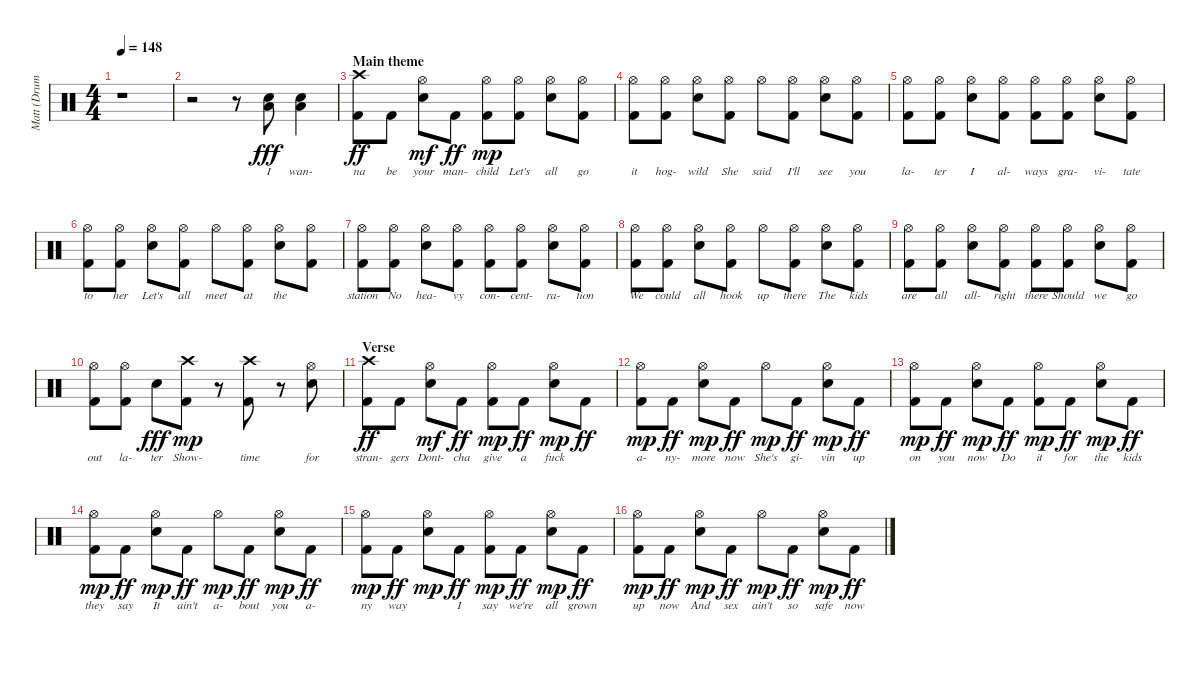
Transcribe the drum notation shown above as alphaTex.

\track ("Matt (Drums)" "Matt (Drum") {instrument percussion}
\staff {score}
\articulation defaults
\ts (4 4)
\tempo 148
\clef neutral
\ks c
r.1{dy fff} |
r.2 r.8 ("Snare (hit) 2" "Low Tom (hit)").8{lyrics (0 "I") lyrics (1 "") lyrics (2 "") lyrics (3 "") lyrics (4 "")} ("Snare (hit) 2" "Low Tom (hit)").4{lyrics (0 "wan-") lyrics (1 "") lyrics (2 "") lyrics (3 "") lyrics (4 "")} |
\section ("" "Main theme")
("Kick (hit) 2" "Crash high (hit)").8{lyrics (0 "na") lyrics (1 "") lyrics (2 "") lyrics (3 "") lyrics (4 "") dy ff} "Kick (hit) 2".8{lyrics (0 "be") lyrics (1 "") lyrics (2 "") lyrics (3 "") lyrics (4 "")} ("Electric Snare (hit)" "Hi-Hat (open)").8{lyrics (0 "your") lyrics (1 "") lyrics (2 "") lyrics (3 "") lyrics (4 "") dy mf} "Kick (hit) 2".8{lyrics (0 "man-") lyrics (1 "") lyrics (2 "") lyrics (3 "") lyrics (4 "") dy ff} ("Kick (hit) 2" "Hi-Hat (open)").8{lyrics (0 "child") lyrics (1 "") lyrics (2 "") lyrics (3 "") lyrics (4 "") dy mp} ("Kick (hit) 2" "Hi-Hat (open)").8{lyrics (0 "Let's") lyrics (1 "") lyrics (2 "") lyrics (3 "") lyrics (4 "")} ("Electric Snare (hit)" "Hi-Hat (open)").8{lyrics (0 "all") lyrics (1 "") lyrics (2 "") lyrics (3 "") lyrics (4 "")} ("Kick (hit) 2" "Hi-Hat (open)").8{lyrics (0 "go") lyrics (1 "") lyrics (2 "") lyrics (3 "") lyrics (4 "")} |
("Kick (hit) 2" "Hi-Hat (open)").8{lyrics (0 "it") lyrics (1 "") lyrics (2 "") lyrics (3 "") lyrics (4 "")} ("Kick (hit) 2" "Hi-Hat (open)").8{lyrics (0 "hog-") lyrics (1 "") lyrics (2 "") lyrics (3 "") lyrics (4 "")} ("Electric Snare (hit)" "Hi-Hat (open)").8{lyrics (0 "wild") lyrics (1 "") lyrics (2 "") lyrics (3 "") lyrics (4 "")} ("Kick (hit) 2" "Hi-Hat (open)").8{lyrics (0 "She") lyrics (1 "") lyrics (2 "") lyrics (3 "") lyrics (4 "")} "Hi-Hat (open)".8{lyrics (0 "said") lyrics (1 "") lyrics (2 "") lyrics (3 "") lyrics (4 "")} ("Kick (hit) 2" "Hi-Hat (open)").8{lyrics (0 "I'll") lyrics (1 "") lyrics (2 "") lyrics (3 "") lyrics (4 "")} ("Electric Snare (hit)" "Hi-Hat (open)").8{lyrics (0 "see") lyrics (1 "") lyrics (2 "") lyrics (3 "") lyrics (4 "")} ("Kick (hit) 2" "Hi-Hat (open)").8{lyrics (0 "you") lyrics (1 "") lyrics (2 "") lyrics (3 "") lyrics (4 "")} |
("Kick (hit) 2" "Hi-Hat (open)").8{lyrics (0 "la-") lyrics (1 "") lyrics (2 "") lyrics (3 "") lyrics (4 "")} ("Kick (hit) 2" "Hi-Hat (open)").8{lyrics (0 "ter") lyrics (1 "") lyrics (2 "") lyrics (3 "") lyrics (4 "")} ("Electric Snare (hit)" "Hi-Hat (open)").8{lyrics (0 "I") lyrics (1 "") lyrics (2 "") lyrics (3 "") lyrics (4 "")} ("Kick (hit) 2" "Hi-Hat (open)").8{lyrics (0 "al-") lyrics (1 "") lyrics (2 "") lyrics (3 "") lyrics (4 "")} ("Kick (hit) 2" "Hi-Hat (open)").8{lyrics (0 "ways") lyrics (1 "") lyrics (2 "") lyrics (3 "") lyrics (4 "")} ("Kick (hit) 2" "Hi-Hat (open)").8{lyrics (0 "gra-") lyrics (1 "") lyrics (2 "") lyrics (3 "") lyrics (4 "")} ("Electric Snare (hit)" "Hi-Hat (open)").8{lyrics (0 "vi-") lyrics (1 "") lyrics (2 "") lyrics (3 "") lyrics (4 "")} ("Kick (hit) 2" "Hi-Hat (open)").8{lyrics (0 "tate") lyrics (1 "") lyrics (2 "") lyrics (3 "") lyrics (4 "")} |
("Kick (hit) 2" "Hi-Hat (open)").8{lyrics (0 "to") lyrics (1 "") lyrics (2 "") lyrics (3 "") lyrics (4 "")} ("Kick (hit) 2" "Hi-Hat (open)").8{lyrics (0 "her") lyrics (1 "") lyrics (2 "") lyrics (3 "") lyrics (4 "")} ("Electric Snare (hit)" "Hi-Hat (open)").8{lyrics (0 "Let's") lyrics (1 "") lyrics (2 "") lyrics (3 "") lyrics (4 "")} ("Kick (hit) 2" "Hi-Hat (open)").8{lyrics (0 "all") lyrics (1 "") lyrics (2 "") lyrics (3 "") lyrics (4 "")} "Hi-Hat (open)".8{lyrics (0 "meet") lyrics (1 "") lyrics (2 "") lyrics (3 "") lyrics (4 "")} ("Kick (hit) 2" "Hi-Hat (open)").8{lyrics (0 "at") lyrics (1 "") lyrics (2 "") lyrics (3 "") lyrics (4 "")} ("Electric Snare (hit)" "Hi-Hat (open)").8{lyrics (0 "the") lyrics (1 "") lyrics (2 "") lyrics (3 "") lyrics (4 "")} ("Kick (hit) 2" "Hi-Hat (open)").8{lyrics (0 "") lyrics (1 "") lyrics (2 "") lyrics (3 "") lyrics (4 "")} |
("Kick (hit) 2" "Hi-Hat (open)").8{lyrics (0 "station") lyrics (1 "") lyrics (2 "") lyrics (3 "") lyrics (4 "")} ("Kick (hit) 2" "Hi-Hat (open)").8{lyrics (0 "No") lyrics (1 "") lyrics (2 "") lyrics (3 "") lyrics (4 "")} ("Electric Snare (hit)" "Hi-Hat (open)").8{lyrics (0 "hea-") lyrics (1 "") lyrics (2 "") lyrics (3 "") lyrics (4 "")} ("Kick (hit) 2" "Hi-Hat (open)").8{lyrics (0 "vy") lyrics (1 "") lyrics (2 "") lyrics (3 "") lyrics (4 "")} ("Kick (hit) 2" "Hi-Hat (open)").8{lyrics (0 "con-") lyrics (1 "") lyrics (2 "") lyrics (3 "") lyrics (4 "")} ("Kick (hit) 2" "Hi-Hat (open)").8{lyrics (0 "cent-") lyrics (1 "") lyrics (2 "") lyrics (3 "") lyrics (4 "")} ("Electric Snare (hit)" "Hi-Hat (open)").8{lyrics (0 "ra-") lyrics (1 "") lyrics (2 "") lyrics (3 "") lyrics (4 "")} ("Kick (hit) 2" "Hi-Hat (open)").8{lyrics (0 "tion") lyrics (1 "") lyrics (2 "") lyrics (3 "") lyrics (4 "")} |
("Kick (hit) 2" "Hi-Hat (open)").8{lyrics (0 "We") lyrics (1 "") lyrics (2 "") lyrics (3 "") lyrics (4 "")} ("Kick (hit) 2" "Hi-Hat (open)").8{lyrics (0 "could") lyrics (1 "") lyrics (2 "") lyrics (3 "") lyrics (4 "")} ("Electric Snare (hit)" "Hi-Hat (open)").8{lyrics (0 "all") lyrics (1 "") lyrics (2 "") lyrics (3 "") lyrics (4 "")} ("Kick (hit) 2" "Hi-Hat (open)").8{lyrics (0 "hook") lyrics (1 "") lyrics (2 "") lyrics (3 "") lyrics (4 "")} "Hi-Hat (open)".8{lyrics (0 "up") lyrics (1 "") lyrics (2 "") lyrics (3 "") lyrics (4 "")} ("Kick (hit) 2" "Hi-Hat (open)").8{lyrics (0 "there") lyrics (1 "") lyrics (2 "") lyrics (3 "") lyrics (4 "")} ("Electric Snare (hit)" "Hi-Hat (open)").8{lyrics (0 "The") lyrics (1 "") lyrics (2 "") lyrics (3 "") lyrics (4 "")} ("Kick (hit) 2" "Hi-Hat (open)").8{lyrics (0 "kids") lyrics (1 "") lyrics (2 "") lyrics (3 "") lyrics (4 "")} |
("Kick (hit) 2" "Hi-Hat (open)").8{lyrics (0 "are") lyrics (1 "") lyrics (2 "") lyrics (3 "") lyrics (4 "")} ("Kick (hit) 2" "Hi-Hat (open)").8{lyrics (0 "all") lyrics (1 "") lyrics (2 "") lyrics (3 "") lyrics (4 "")} ("Electric Snare (hit)" "Hi-Hat (open)").8{lyrics (0 "all-") lyrics (1 "") lyrics (2 "") lyrics (3 "") lyrics (4 "")} ("Kick (hit) 2" "Hi-Hat (open)").8{lyrics (0 "right") lyrics (1 "") lyrics (2 "") lyrics (3 "") lyrics (4 "")} ("Kick (hit) 2" "Hi-Hat (open)").8{lyrics (0 "there") lyrics (1 "") lyrics (2 "") lyrics (3 "") lyrics (4 "")} ("Kick (hit) 2" "Hi-Hat (open)").8{lyrics (0 "Should") lyrics (1 "") lyrics (2 "") lyrics (3 "") lyrics (4 "")} ("Electric Snare (hit)" "Hi-Hat (open)").8{lyrics (0 "we") lyrics (1 "") lyrics (2 "") lyrics (3 "") lyrics (4 "")} ("Kick (hit) 2" "Hi-Hat (open)").8{lyrics (0 "go") lyrics (1 "") lyrics (2 "") lyrics (3 "") lyrics (4 "")} |
("Kick (hit) 2" "Hi-Hat (open)").8{lyrics (0 "out") lyrics (1 "") lyrics (2 "") lyrics (3 "") lyrics (4 "")} ("Kick (hit) 2" "Hi-Hat (open)").8{lyrics (0 "la-") lyrics (1 "") lyrics (2 "") lyrics (3 "") lyrics (4 "")} "Electric Snare (hit)".8{lyrics (0 "ter") lyrics (1 "") lyrics (2 "") lyrics (3 "") lyrics (4 "") dy fff} ("Kick (hit) 2" "Crash high (hit)").8{lyrics (0 "Show-") lyrics (1 "") lyrics (2 "") lyrics (3 "") lyrics (4 "") dy mp} r.8 ("Kick (hit) 2" "Crash high (hit)").8{lyrics (0 "time") lyrics (1 "") lyrics (2 "") lyrics (3 "") lyrics (4 "")} r.8 ("Electric Snare (hit)" "Hi-Hat (open)").8{lyrics (0 "for") lyrics (1 "") lyrics (2 "") lyrics (3 "") lyrics (4 "")} |
\section ("" "Verse")
("Kick (hit) 2" "Crash high (hit)").8{lyrics (0 "stran-") lyrics (1 "") lyrics (2 "") lyrics (3 "") lyrics (4 "") dy ff} "Kick (hit) 2".8{lyrics (0 "gers") lyrics (1 "") lyrics (2 "") lyrics (3 "") lyrics (4 "")} ("Electric Snare (hit)" "Hi-Hat (open)").8{lyrics (0 "Dont-") lyrics (1 "") lyrics (2 "") lyrics (3 "") lyrics (4 "") dy mf} "Kick (hit) 2".8{lyrics (0 "cha") lyrics (1 "") lyrics (2 "") lyrics (3 "") lyrics (4 "") dy ff} ("Kick (hit) 2" "Hi-Hat (open)").8{lyrics (0 "give") lyrics (1 "") lyrics (2 "") lyrics (3 "") lyrics (4 "") dy mp} "Kick (hit) 2".8{lyrics (0 "a") lyrics (1 "") lyrics (2 "") lyrics (3 "") lyrics (4 "") dy ff} ("Electric Snare (hit)" "Hi-Hat (open)").8{lyrics (0 "fuck") lyrics (1 "") lyrics (2 "") lyrics (3 "") lyrics (4 "") dy mp} "Kick (hit) 2".8{lyrics (0 "") lyrics (1 "") lyrics (2 "") lyrics (3 "") lyrics (4 "") dy ff} |
("Kick (hit) 2" "Hi-Hat (open)").8{lyrics (0 "a-") lyrics (1 "") lyrics (2 "") lyrics (3 "") lyrics (4 "") dy mp} "Kick (hit) 2".8{lyrics (0 "ny-") lyrics (1 "") lyrics (2 "") lyrics (3 "") lyrics (4 "") dy ff} ("Electric Snare (hit)" "Hi-Hat (open)").8{lyrics (0 "more") lyrics (1 "") lyrics (2 "") lyrics (3 "") lyrics (4 "") dy mp} "Kick (hit) 2".8{lyrics (0 "now") lyrics (1 "") lyrics (2 "") lyrics (3 "") lyrics (4 "") dy ff} "Hi-Hat (open)".8{lyrics (0 "She's") lyrics (1 "") lyrics (2 "") lyrics (3 "") lyrics (4 "") dy mp} "Kick (hit) 2".8{lyrics (0 "gi-") lyrics (1 "") lyrics (2 "") lyrics (3 "") lyrics (4 "") dy ff} ("Electric Snare (hit)" "Hi-Hat (open)").8{lyrics (0 "vin") lyrics (1 "") lyrics (2 "") lyrics (3 "") lyrics (4 "") dy mp} "Kick (hit) 2".8{lyrics (0 "up") lyrics (1 "") lyrics (2 "") lyrics (3 "") lyrics (4 "") dy ff} |
("Kick (hit) 2" "Hi-Hat (open)").8{lyrics (0 "on") lyrics (1 "") lyrics (2 "") lyrics (3 "") lyrics (4 "") dy mp} "Kick (hit) 2".8{lyrics (0 "you") lyrics (1 "") lyrics (2 "") lyrics (3 "") lyrics (4 "") dy ff} ("Electric Snare (hit)" "Hi-Hat (open)").8{lyrics (0 "now") lyrics (1 "") lyrics (2 "") lyrics (3 "") lyrics (4 "") dy mp} "Kick (hit) 2".8{lyrics (0 "Do") lyrics (1 "") lyrics (2 "") lyrics (3 "") lyrics (4 "") dy ff} ("Kick (hit) 2" "Hi-Hat (open)").8{lyrics (0 "it") lyrics (1 "") lyrics (2 "") lyrics (3 "") lyrics (4 "") dy mp} "Kick (hit) 2".8{lyrics (0 "for") lyrics (1 "") lyrics (2 "") lyrics (3 "") lyrics (4 "") dy ff} ("Electric Snare (hit)" "Hi-Hat (open)").8{lyrics (0 "the") lyrics (1 "") lyrics (2 "") lyrics (3 "") lyrics (4 "") dy mp} "Kick (hit) 2".8{lyrics (0 "kids") lyrics (1 "") lyrics (2 "") lyrics (3 "") lyrics (4 "") dy ff} |
("Kick (hit) 2" "Hi-Hat (open)").8{lyrics (0 "they") lyrics (1 "") lyrics (2 "") lyrics (3 "") lyrics (4 "") dy mp} "Kick (hit) 2".8{lyrics (0 "say") lyrics (1 "") lyrics (2 "") lyrics (3 "") lyrics (4 "") dy ff} ("Electric Snare (hit)" "Hi-Hat (open)").8{lyrics (0 "It") lyrics (1 "") lyrics (2 "") lyrics (3 "") lyrics (4 "") dy mp} "Kick (hit) 2".8{lyrics (0 "ain't") lyrics (1 "") lyrics (2 "") lyrics (3 "") lyrics (4 "") dy ff} "Hi-Hat (open)".8{lyrics (0 "a-") lyrics (1 "") lyrics (2 "") lyrics (3 "") lyrics (4 "") dy mp} "Kick (hit) 2".8{lyrics (0 "bout") lyrics (1 "") lyrics (2 "") lyrics (3 "") lyrics (4 "") dy ff} ("Electric Snare (hit)" "Hi-Hat (open)").8{lyrics (0 "you") lyrics (1 "") lyrics (2 "") lyrics (3 "") lyrics (4 "") dy mp} "Kick (hit) 2".8{lyrics (0 "a-") lyrics (1 "") lyrics (2 "") lyrics (3 "") lyrics (4 "") dy ff} |
("Kick (hit) 2" "Hi-Hat (open)").8{lyrics (0 "ny") lyrics (1 "") lyrics (2 "") lyrics (3 "") lyrics (4 "") dy mp} "Kick (hit) 2".8{lyrics (0 "way") lyrics (1 "") lyrics (2 "") lyrics (3 "") lyrics (4 "") dy ff} ("Electric Snare (hit)" "Hi-Hat (open)").8{lyrics (0 "") lyrics (1 "") lyrics (2 "") lyrics (3 "") lyrics (4 "") dy mp} "Kick (hit) 2".8{lyrics (0 "I") lyrics (1 "") lyrics (2 "") lyrics (3 "") lyrics (4 "") dy ff} ("Kick (hit) 2" "Hi-Hat (open)").8{lyrics (0 "say") lyrics (1 "") lyrics (2 "") lyrics (3 "") lyrics (4 "") dy mp} "Kick (hit) 2".8{lyrics (0 "we're") lyrics (1 "") lyrics (2 "") lyrics (3 "") lyrics (4 "") dy ff} ("Electric Snare (hit)" "Hi-Hat (open)").8{lyrics (0 "all") lyrics (1 "") lyrics (2 "") lyrics (3 "") lyrics (4 "") dy mp} "Kick (hit) 2".8{lyrics (0 "grown") lyrics (1 "") lyrics (2 "") lyrics (3 "") lyrics (4 "") dy ff} |
("Kick (hit) 2" "Hi-Hat (open)").8{lyrics (0 "up") lyrics (1 "") lyrics (2 "") lyrics (3 "") lyrics (4 "") dy mp} "Kick (hit) 2".8{lyrics (0 "now") lyrics (1 "") lyrics (2 "") lyrics (3 "") lyrics (4 "") dy ff} ("Electric Snare (hit)" "Hi-Hat (open)").8{lyrics (0 "And") lyrics (1 "") lyrics (2 "") lyrics (3 "") lyrics (4 "") dy mp} "Kick (hit) 2".8{lyrics (0 "sex") lyrics (1 "") lyrics (2 "") lyrics (3 "") lyrics (4 "") dy ff} "Hi-Hat (open)".8{lyrics (0 "ain't") lyrics (1 "") lyrics (2 "") lyrics (3 "") lyrics (4 "") dy mp} "Kick (hit) 2".8{lyrics (0 "so") lyrics (1 "") lyrics (2 "") lyrics (3 "") lyrics (4 "") dy ff} ("Electric Snare (hit)" "Hi-Hat (open)").8{lyrics (0 "safe") lyrics (1 "") lyrics (2 "") lyrics (3 "") lyrics (4 "") dy mp} "Kick (hit) 2".8{lyrics (0 "now") lyrics (1 "") lyrics (2 "") lyrics (3 "") lyrics (4 "") dy ff}
